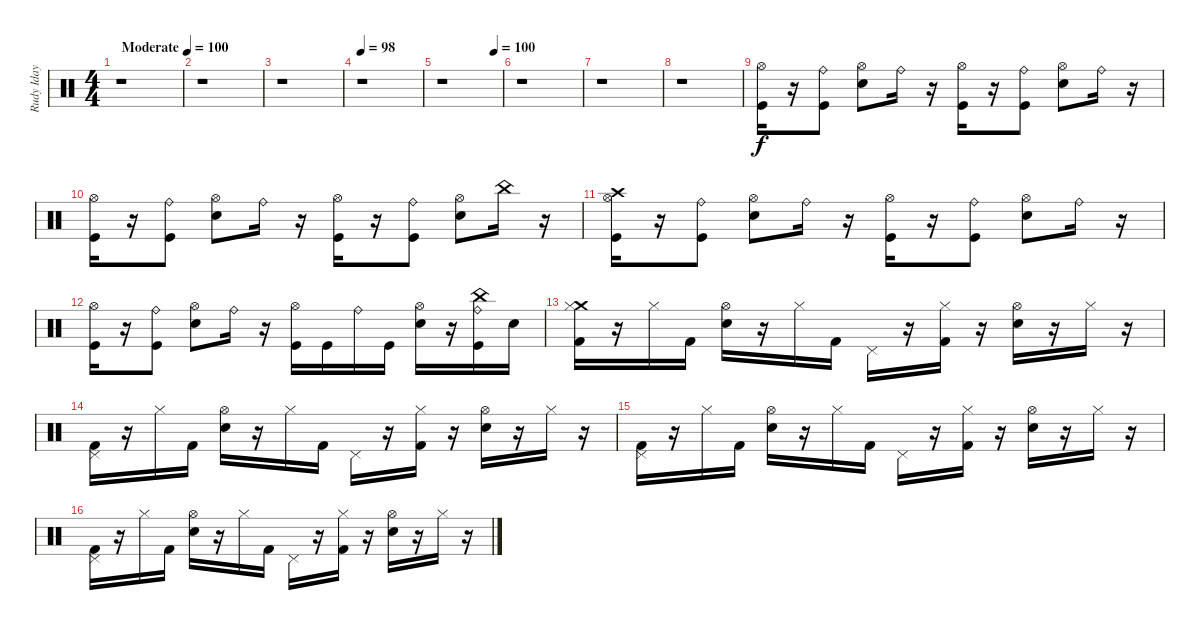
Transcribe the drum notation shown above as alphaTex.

\track ("Rudy Iday" "Rudy Iday") {instrument percussion}
\staff {score}
\articulation defaults
\ts (4 4)
\tempo (100 "Moderate")
\clef neutral
\ks c
r.1{dy f} |
r.1 |
r.1 |
\tempo 98
r.1 |
\tempo (100 0.875)
r.1 |
r.1 |
r.1 |
r.1 |
("Kick (hit)" "Hi-Hat (open)").16{volume 15} r.16 ("Ride (bell)" "Kick (hit)").8 ("Electric Snare (hit)" "Hi-Hat (open)").8 "Ride (bell)".16 r.16 ("Kick (hit)" "Hi-Hat (open)").16 r.16 ("Ride (bell)" "Kick (hit)").8 ("Electric Snare (hit)" "Hi-Hat (open)").8 "Ride (bell)".16 r.16 |
("Kick (hit)" "Hi-Hat (open)").16 r.16 ("Kick (hit)" "Ride (bell)").8 ("Electric Snare (hit)" "Hi-Hat (open)").8 "Ride (bell)".16 r.16 ("Kick (hit)" "Hi-Hat (open)").16 r.16 ("Kick (hit)" "Ride (bell)").8 ("Electric Snare (hit)" "Hi-Hat (open)").8 "China (hit)".16 r.16 |
("Hi-Hat (open)" "Crash high (hit)" "Kick (hit)").16 r.16 ("Kick (hit)" "Ride (bell)").8 ("Electric Snare (hit)" "Hi-Hat (open)").8 "Ride (bell)".16 r.16 ("Hi-Hat (open)" "Kick (hit)").16 r.16 ("Ride (bell)" "Kick (hit)").8 ("Electric Snare (hit)" "Hi-Hat (open)").8 "Ride (bell)".16 r.16 |
("Hi-Hat (open)" "Kick (hit)").16 r.16 ("Ride (bell)" "Kick (hit)").8 ("Electric Snare (hit)" "Hi-Hat (open)").8 "Ride (bell)".16 r.16 ("Hi-Hat (open)" "Kick (hit)").16 "Kick (hit)".16 "Ride (bell)".16 "Kick (hit)".16 ("Electric Snare (hit)" "Hi-Hat (open)").16 r.16 ("Ride (bell)" "China (hit)" "Kick (hit)").16 "Electric Snare (hit)".16 |
("Crash medium (hit)" "Kick (hit) 2" "Hi-Hat (closed)").16 r.16 "Hi-Hat (closed)".16 "Kick (hit) 2".16 ("Electric Snare (hit)" "Hi-Hat (open)").16 r.16 "Hi-Hat (closed)".16 "Kick (hit) 2".16 "Pedal Hi-Hat (hit)".16 r.16 ("Hi-Hat (closed)" "Kick (hit) 2").16 r.16 ("Electric Snare (hit)" "Hi-Hat (open)").16 r.16 "Hi-Hat (closed)".16 r.16 |
("Pedal Hi-Hat (hit)" "Kick (hit) 2").16 r.16 "Hi-Hat (closed)".16 "Kick (hit) 2".16 ("Electric Snare (hit)" "Hi-Hat (open)").16 r.16 "Hi-Hat (closed)".16 "Kick (hit) 2".16 "Pedal Hi-Hat (hit)".16 r.16 ("Hi-Hat (closed)" "Kick (hit) 2").16 r.16 ("Electric Snare (hit)" "Hi-Hat (open)").16 r.16 "Hi-Hat (closed)".16 r.16 |
("Kick (hit) 2" "Pedal Hi-Hat (hit)").16 r.16 "Hi-Hat (closed)".16 "Kick (hit) 2".16 ("Electric Snare (hit)" "Hi-Hat (open)").16 r.16 "Hi-Hat (closed)".16 "Kick (hit) 2".16 "Pedal Hi-Hat (hit)".16 r.16 ("Hi-Hat (closed)" "Kick (hit) 2").16 r.16 ("Electric Snare (hit)" "Hi-Hat (open)").16 r.16 "Hi-Hat (closed)".16 r.16 |
("Kick (hit) 2" "Pedal Hi-Hat (hit)").16 r.16 "Hi-Hat (closed)".16 "Kick (hit) 2".16 ("Electric Snare (hit)" "Hi-Hat (open)").16 r.16 "Hi-Hat (closed)".16 "Kick (hit) 2".16 "Pedal Hi-Hat (hit)".16 r.16 ("Hi-Hat (closed)" "Kick (hit) 2").16 r.16 ("Electric Snare (hit)" "Hi-Hat (open)").16 r.16 "Hi-Hat (closed)".16 r.16
